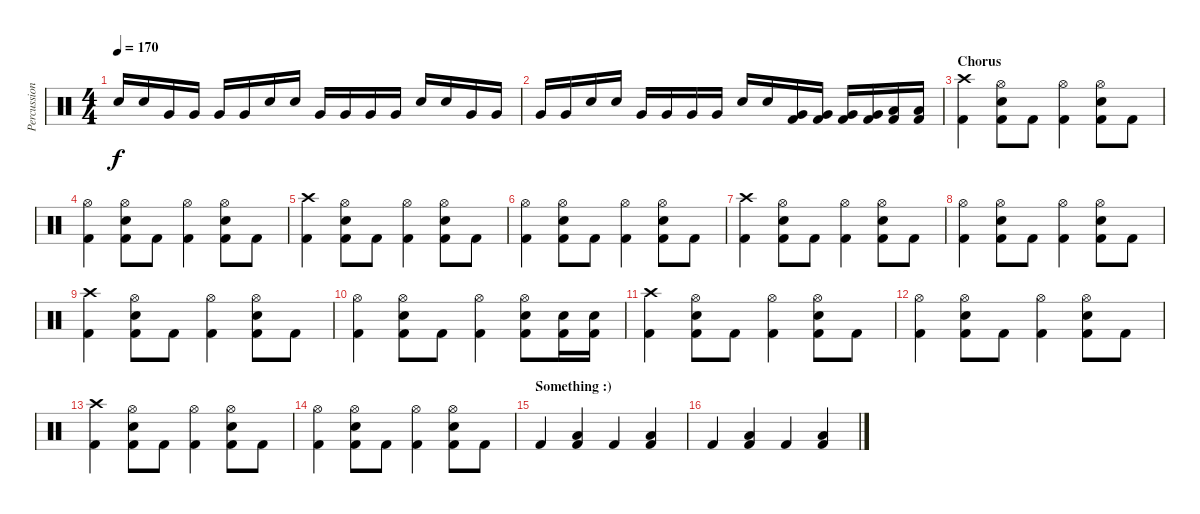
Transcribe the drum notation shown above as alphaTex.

\track ("Percussion" "Percussion") {instrument percussion}
\staff {score}
\articulation defaults
\ts (4 4)
\tempo 170
\clef neutral
\ks c "Snare (hit) 2".16{dy f} "Snare (hit) 2".16 "Very Low Tom (hit)".16 "Very Low Tom (hit)".16 "Very Low Tom (hit)".16 "Very Low Tom (hit)".16 "Snare (hit) 2".16 "Snare (hit) 2".16 "Very Low Tom (hit)".16 "Very Low Tom (hit)".16 "Very Low Tom (hit)".16 "Very Low Tom (hit)".16 "Snare (hit) 2".16 "Snare (hit) 2".16 "Very Low Tom (hit)".16 "Very Low Tom (hit)".16
|
"Very Low Tom (hit)".16 "Very Low Tom (hit)".16 "Snare (hit) 2".16 "Snare (hit) 2".16 "Very Low Tom (hit)".16 "Very Low Tom (hit)".16 "Very Low Tom (hit)".16 "Very Low Tom (hit)".16 "Snare (hit) 2".16 "Snare (hit) 2".16 ("Very Low Tom (hit)" "Kick (hit) 2").16 ("Very Low Tom (hit)" "Kick (hit) 2").16 ("Very Low Tom (hit)" "Kick (hit) 2").16 ("Very Low Tom (hit)" "Kick (hit) 2").16 ("Low Tom (hit)" "Kick (hit) 2").16 ("Low Tom (hit)" "Kick (hit) 2").16 |
\section ("" "Chorus")
("Crash high (hit)" "Kick (hit) 2").4 ("Hi-Hat (open)" "Snare (hit) 2" "Kick (hit) 2").8 "Kick (hit) 2".8 ("Hi-Hat (open)" "Kick (hit) 2").4 ("Hi-Hat (open)" "Snare (hit) 2" "Kick (hit) 2").8 "Kick (hit) 2".8 |
("Hi-Hat (open)" "Kick (hit) 2").4 ("Hi-Hat (open)" "Snare (hit) 2" "Kick (hit) 2").8 "Kick (hit) 2".8 ("Hi-Hat (open)" "Kick (hit) 2").4 ("Hi-Hat (open)" "Snare (hit) 2" "Kick (hit) 2").8 "Kick (hit) 2".8 |
("Crash high (hit)" "Kick (hit) 2").4 ("Hi-Hat (open)" "Snare (hit) 2" "Kick (hit) 2").8 "Kick (hit) 2".8 ("Hi-Hat (open)" "Kick (hit) 2").4 ("Hi-Hat (open)" "Snare (hit) 2" "Kick (hit) 2").8 "Kick (hit) 2".8 |
("Hi-Hat (open)" "Kick (hit) 2").4 ("Hi-Hat (open)" "Snare (hit) 2" "Kick (hit) 2").8 "Kick (hit) 2".8 ("Hi-Hat (open)" "Kick (hit) 2").4 ("Hi-Hat (open)" "Snare (hit) 2" "Kick (hit) 2").8 "Kick (hit) 2".8 |
("Crash high (hit)" "Kick (hit) 2").4 ("Hi-Hat (open)" "Snare (hit) 2" "Kick (hit) 2").8 "Kick (hit) 2".8 ("Hi-Hat (open)" "Kick (hit) 2").4 ("Hi-Hat (open)" "Snare (hit) 2" "Kick (hit) 2").8 "Kick (hit) 2".8 |
("Hi-Hat (open)" "Kick (hit) 2").4 ("Hi-Hat (open)" "Snare (hit) 2" "Kick (hit) 2").8 "Kick (hit) 2".8 ("Hi-Hat (open)" "Kick (hit) 2").4 ("Hi-Hat (open)" "Snare (hit) 2" "Kick (hit) 2").8 "Kick (hit) 2".8 |
("Crash high (hit)" "Kick (hit) 2").4 ("Hi-Hat (open)" "Snare (hit) 2" "Kick (hit) 2").8 "Kick (hit) 2".8 ("Hi-Hat (open)" "Kick (hit) 2").4 ("Hi-Hat (open)" "Snare (hit) 2" "Kick (hit) 2").8 "Kick (hit) 2".8 |
("Hi-Hat (open)" "Kick (hit) 2").4 ("Hi-Hat (open)" "Snare (hit) 2" "Kick (hit) 2").8 "Kick (hit) 2".8 ("Hi-Hat (open)" "Kick (hit) 2").4 ("Hi-Hat (open)" "Snare (hit) 2" "Kick (hit) 2").8 ("Snare (hit) 2" "Kick (hit) 2").16 ("Snare (hit) 2" "Kick (hit) 2").16 |
("Crash high (hit)" "Kick (hit) 2").4 ("Hi-Hat (open)" "Snare (hit) 2" "Kick (hit) 2").8 "Kick (hit) 2".8 ("Hi-Hat (open)" "Kick (hit) 2").4 ("Hi-Hat (open)" "Snare (hit) 2" "Kick (hit) 2").8 "Kick (hit) 2".8 |
("Hi-Hat (open)" "Kick (hit) 2").4 ("Hi-Hat (open)" "Snare (hit) 2" "Kick (hit) 2").8 "Kick (hit) 2".8 ("Hi-Hat (open)" "Kick (hit) 2").4 ("Hi-Hat (open)" "Snare (hit) 2" "Kick (hit) 2").8 "Kick (hit) 2".8 |
("Crash high (hit)" "Kick (hit) 2").4 ("Hi-Hat (open)" "Snare (hit) 2" "Kick (hit) 2").8 "Kick (hit) 2".8 ("Hi-Hat (open)" "Kick (hit) 2").4 ("Hi-Hat (open)" "Snare (hit) 2" "Kick (hit) 2").8 "Kick (hit) 2".8 |
("Hi-Hat (open)" "Kick (hit) 2").4 ("Hi-Hat (open)" "Snare (hit) 2" "Kick (hit) 2").8 "Kick (hit) 2".8 ("Hi-Hat (open)" "Kick (hit) 2").4 ("Hi-Hat (open)" "Snare (hit) 2" "Kick (hit) 2").8 "Kick (hit) 2".8 |
\section ("" "Something :)")
"Kick (hit) 2".4 ("Low Tom (hit)" "Kick (hit) 2").4 "Kick (hit) 2".4 ("Low Tom (hit)" "Kick (hit) 2").4 |
"Kick (hit) 2".4 ("Low Tom (hit)" "Kick (hit) 2").4 "Kick (hit) 2".4 ("Low Tom (hit)" "Kick (hit) 2").4
